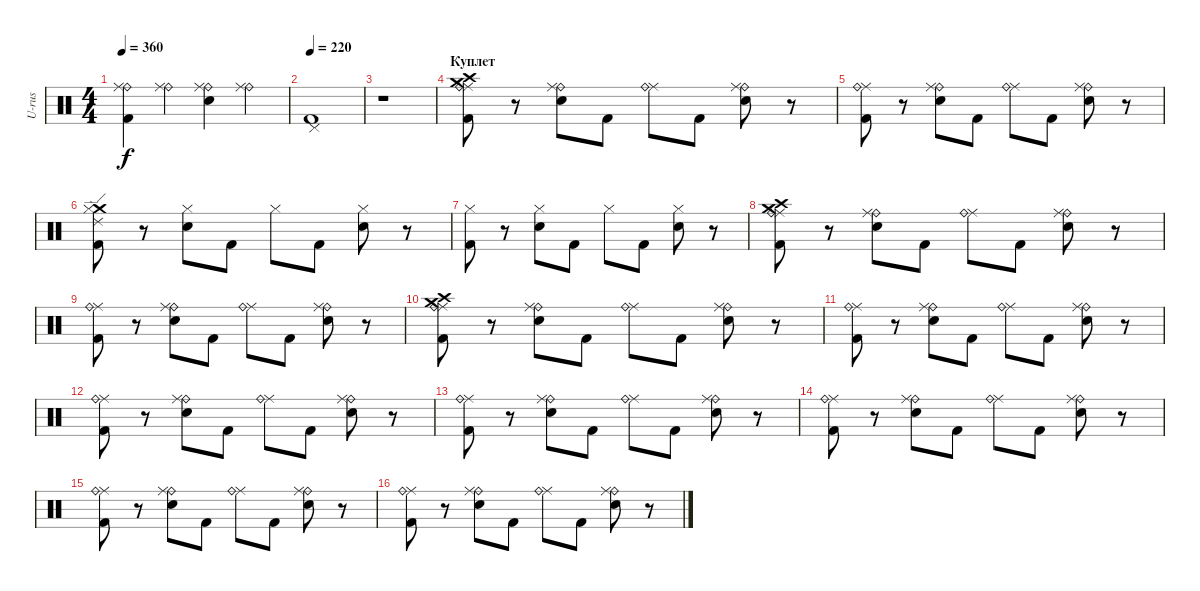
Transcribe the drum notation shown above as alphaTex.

\track ("U-rus" "U-rus") {instrument percussion}
\staff {score}
\articulation defaults
\ts (4 4)
\tempo 360
\clef neutral
\ks c
("Ride (bell)" "Ride (middle)" "Kick (hit) 2").4{dy f} ("Ride (bell)" "Ride (middle)").4 ("Ride (bell)" "Ride (middle)" "Snare (hit) 2").4 ("Ride (bell)" "Ride (middle)").4 |
\tempo 220
("Pedal Hi-Hat (hit)" "Kick (hit) 2").1 |
r.1 |
\section ("" "Куплет")
("Crash medium (hit)" "Crash high (hit)" "Ride (middle)" "Ride (bell)" "Kick (hit) 2").8 r.8 ("Ride (bell)" "Ride (middle)" "Snare (hit) 2").8 "Kick (hit) 2".8 ("Ride (middle)" "Ride (bell)").8 "Kick (hit) 2".8 ("Ride (bell)" "Ride (middle)" "Snare (hit) 2").8 r.8 |
("Ride (middle)" "Ride (bell)" "Kick (hit) 2").8 r.8 ("Ride (bell)" "Ride (middle)" "Snare (hit) 2").8 "Kick (hit) 2".8 ("Ride (middle)" "Ride (bell)").8 "Kick (hit) 2".8 ("Ride (bell)" "Ride (middle)" "Snare (hit) 2").8 r.8 |
("Crash medium (hit)" "Ride (edge) 2" "Hi-Hat (closed)" "Kick (hit) 2").8 r.8 ("Hi-Hat (closed)" "Snare (hit) 2").8 "Kick (hit) 2".8 "Hi-Hat (closed)".8 "Kick (hit) 2".8 ("Hi-Hat (closed)" "Snare (hit) 2").8 r.8 |
("Hi-Hat (closed)" "Kick (hit) 2").8 r.8 ("Hi-Hat (closed)" "Snare (hit) 2").8 "Kick (hit) 2".8 "Hi-Hat (closed)".8 "Kick (hit) 2".8 ("Hi-Hat (closed)" "Snare (hit) 2").8 r.8 |
("Crash medium (hit)" "Crash high (hit)" "Ride (middle)" "Ride (bell)" "Kick (hit) 2").8 r.8 ("Ride (bell)" "Ride (middle)" "Snare (hit) 2").8 "Kick (hit) 2".8 ("Ride (middle)" "Ride (bell)").8 "Kick (hit) 2".8 ("Ride (bell)" "Ride (middle)" "Snare (hit) 2").8 r.8 |
("Ride (middle)" "Ride (bell)" "Kick (hit) 2").8 r.8 ("Ride (bell)" "Ride (middle)" "Snare (hit) 2").8 "Kick (hit) 2".8 ("Ride (middle)" "Ride (bell)").8 "Kick (hit) 2".8 ("Ride (bell)" "Ride (middle)" "Snare (hit) 2").8 r.8 |
("Crash medium (hit)" "Crash high (hit)" "Ride (middle)" "Ride (bell)" "Kick (hit) 2").8 r.8 ("Ride (bell)" "Ride (middle)" "Snare (hit) 2").8 "Kick (hit) 2".8 ("Ride (middle)" "Ride (bell)").8 "Kick (hit) 2".8 ("Ride (bell)" "Ride (middle)" "Snare (hit) 2").8 r.8 |
("Ride (middle)" "Ride (bell)" "Kick (hit) 2").8 r.8 ("Ride (bell)" "Ride (middle)" "Snare (hit) 2").8 "Kick (hit) 2".8 ("Ride (middle)" "Ride (bell)").8 "Kick (hit) 2".8 ("Ride (bell)" "Ride (middle)" "Snare (hit) 2").8 r.8 |
("Ride (middle)" "Ride (bell)" "Kick (hit) 2").8 r.8 ("Ride (bell)" "Ride (middle)" "Snare (hit) 2").8 "Kick (hit) 2".8 ("Ride (middle)" "Ride (bell)").8 "Kick (hit) 2".8 ("Ride (bell)" "Ride (middle)" "Snare (hit) 2").8 r.8 |
("Ride (middle)" "Ride (bell)" "Kick (hit) 2").8 r.8 ("Ride (bell)" "Ride (middle)" "Snare (hit) 2").8 "Kick (hit) 2".8 ("Ride (middle)" "Ride (bell)").8 "Kick (hit) 2".8 ("Ride (bell)" "Ride (middle)" "Snare (hit) 2").8 r.8 |
("Ride (middle)" "Ride (bell)" "Kick (hit) 2").8 r.8 ("Ride (bell)" "Ride (middle)" "Snare (hit) 2").8 "Kick (hit) 2".8 ("Ride (middle)" "Ride (bell)").8 "Kick (hit) 2".8 ("Ride (bell)" "Ride (middle)" "Snare (hit) 2").8 r.8 |
("Ride (middle)" "Ride (bell)" "Kick (hit) 2").8 r.8 ("Ride (bell)" "Ride (middle)" "Snare (hit) 2").8 "Kick (hit) 2".8 ("Ride (middle)" "Ride (bell)").8 "Kick (hit) 2".8 ("Ride (bell)" "Ride (middle)" "Snare (hit) 2").8 r.8 |
("Ride (middle)" "Ride (bell)" "Kick (hit) 2").8 r.8 ("Ride (bell)" "Ride (middle)" "Snare (hit) 2").8 "Kick (hit) 2".8 ("Ride (middle)" "Ride (bell)").8 "Kick (hit) 2".8 ("Ride (bell)" "Ride (middle)" "Snare (hit) 2").8 r.8
